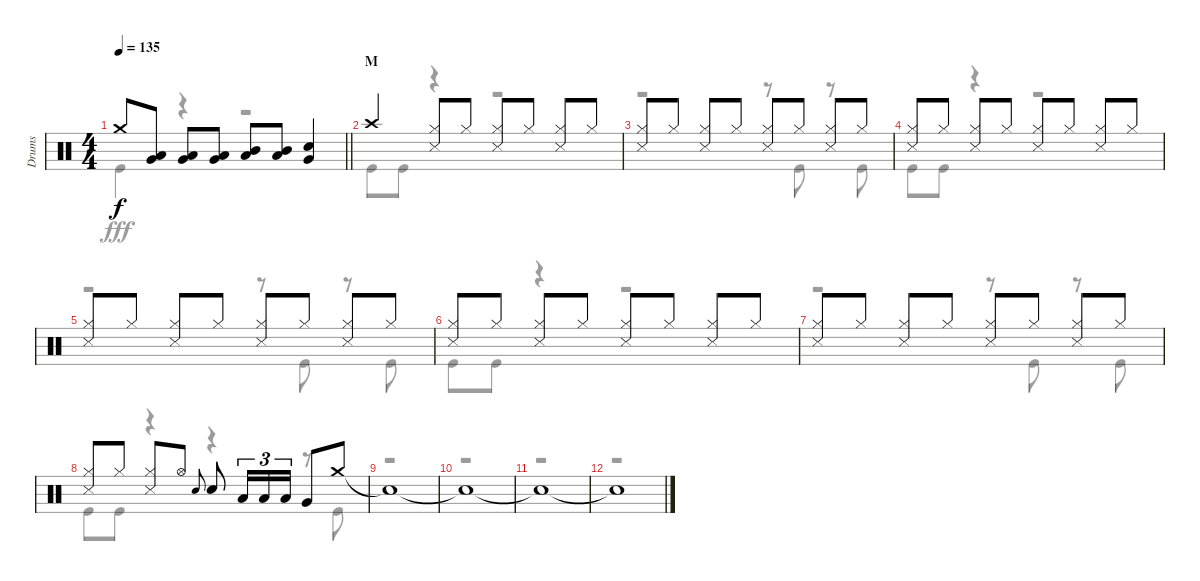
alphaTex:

\track ("Drums" "Drums") {instrument percussion}
\staff {score}
\articulation defaults
\voice
\ts (4 4)
\tempo 135
\clef neutral
\barLineRight lightlight
\ks c "Crash medium (hit)".8{dy f}
("Low Tom (hit)" "Very Low Tom (hit)").8 ("Low Tom (hit)" "Very Low Tom (hit)").8 ("Low Tom (hit)" "Very Low Tom (hit)").8 ("Mid Tom (hit)" "Low Tom (hit)").8 ("Mid Tom (hit)" "Low Tom (hit)").8 ("Snare (hit) 2" "Very Low Tom (hit)").4 |
\section ("" "M")
"Crash high (hit)".4 ("Hi-Hat (closed)" "Snare (side stick) 3").8 "Hi-Hat (closed)".8 ("Hi-Hat (closed)" "Snare (side stick) 3").8 "Hi-Hat (closed)".8 ("Hi-Hat (closed)" "Snare (side stick) 3").8 "Hi-Hat (closed)".8 |
("Hi-Hat (closed)" "Snare (side stick) 3").8 "Hi-Hat (closed)".8 ("Hi-Hat (closed)" "Snare (side stick) 3").8 "Hi-Hat (closed)".8 ("Hi-Hat (closed)" "Snare (side stick) 3").8 "Hi-Hat (closed)".8 ("Hi-Hat (closed)" "Snare (side stick) 3").8 "Hi-Hat (closed)".8 |
("Hi-Hat (closed)" "Snare (side stick) 3").8 "Hi-Hat (closed)".8 ("Hi-Hat (closed)" "Snare (side stick) 3").8 "Hi-Hat (closed)".8 ("Hi-Hat (closed)" "Snare (side stick) 3").8 "Hi-Hat (closed)".8 ("Hi-Hat (closed)" "Snare (side stick) 3").8 "Hi-Hat (closed)".8 |
("Hi-Hat (closed)" "Snare (side stick) 3").8 "Hi-Hat (closed)".8 ("Hi-Hat (closed)" "Snare (side stick) 3").8 "Hi-Hat (closed)".8 ("Hi-Hat (closed)" "Snare (side stick) 3").8 "Hi-Hat (closed)".8 ("Hi-Hat (closed)" "Snare (side stick) 3").8 "Hi-Hat (closed)".8 |
("Hi-Hat (closed)" "Snare (side stick) 3").8 "Hi-Hat (closed)".8 ("Hi-Hat (closed)" "Snare (side stick) 3").8 "Hi-Hat (closed)".8 ("Hi-Hat (closed)" "Snare (side stick) 3").8 "Hi-Hat (closed)".8 ("Hi-Hat (closed)" "Snare (side stick) 3").8 "Hi-Hat (closed)".8 |
("Hi-Hat (closed)" "Snare (side stick) 3").8 "Hi-Hat (closed)".8 ("Hi-Hat (closed)" "Snare (side stick) 3").8 "Hi-Hat (closed)".8 ("Hi-Hat (closed)" "Snare (side stick) 3").8 "Hi-Hat (closed)".8 ("Hi-Hat (closed)" "Snare (side stick) 3").8 "Hi-Hat (closed)".8 |
("Hi-Hat (closed)" "Snare (side stick) 3").8 "Hi-Hat (closed)".8 ("Hi-Hat (closed)" "Snare (side stick) 3").8 "Hi-Hat (open)".8 "Snare (hit) 2".8{gr onbeat} "Snare (hit) 2".8 "Low Tom (hit)".16{tu (3 2)} "Low Tom (hit)".16{tu (3 2)} "Low Tom (hit)".16{tu (3 2)} "Very Low Tom (hit)".8 "Crash medium (hit)".8 |
"Snare (hit)"{t}.1 |
"Snare (hit)"{t}.1 |
"Snare (hit)"{t}.1 |
"Snare (hit)"{t}.1
\voice
\clef neutral
\ottava regular
\simile none
\barLineRight lightlight
\ks c "Kick (hit)".4{dy fff}
r.4 r.2 |
"Kick (hit)".8 "Kick (hit)".8 r.4 r.2 |
r.2 r.8 "Kick (hit)".8 r.8 "Kick (hit)".8 |
"Kick (hit)".8 "Kick (hit)".8 r.4 r.2 |
r.2 r.8 "Kick (hit)".8 r.8 "Kick (hit)".8 |
"Kick (hit)".8 "Kick (hit)".8 r.4 r.2 |
r.2 r.8 "Kick (hit)".8 r.8 "Kick (hit)".8 |
"Kick (hit)".8 "Kick (hit)".8 r.4 r.4 r.8 "Kick (hit)".8 |
r.1 |
r.1 |
r.1 |
r.1
